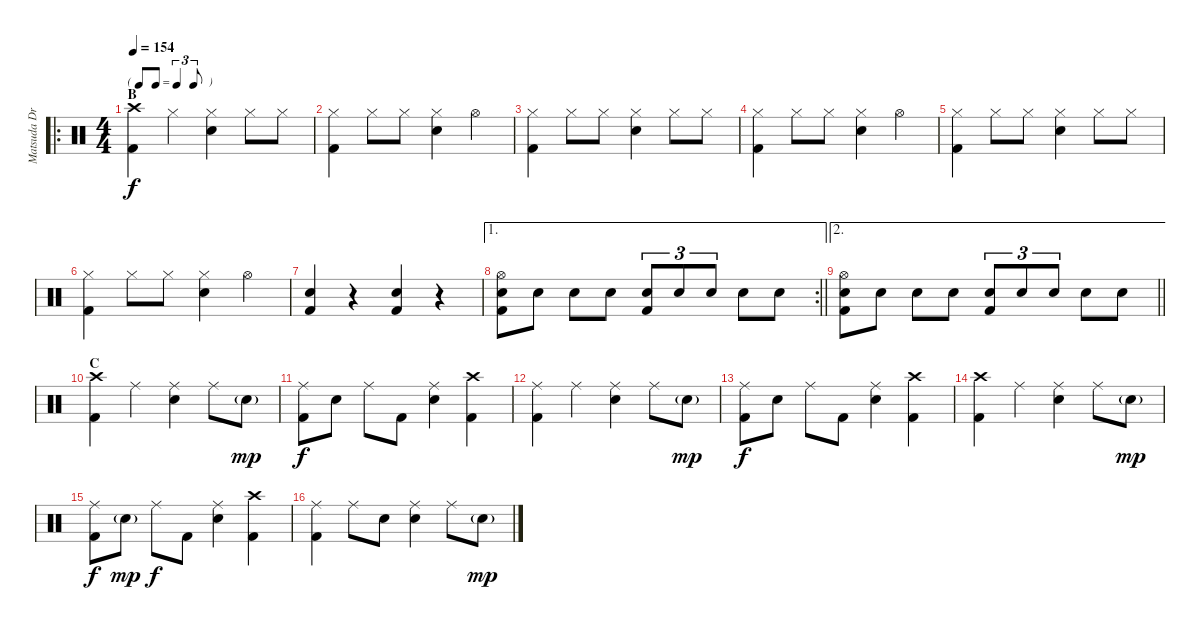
\track ("Matsuda Drums" "Matsuda Dr") {instrument percussion}
\staff {score}
\articulation defaults
\ro
\ts (4 4)
\tf triplet8th
\section ("" "B")
\tempo 154
\clef neutral
\ks c
("Crash high (hit)" "Kick (hit) 2").4{dy f} "Hi-Hat (closed)".4 ("Hi-Hat (closed)" "Snare (hit) 2").4 "Hi-Hat (closed)".8 "Hi-Hat (closed)".8 |
("Hi-Hat (closed)" "Kick (hit) 2").4 "Hi-Hat (closed)".8 "Hi-Hat (closed)".8 ("Hi-Hat (closed)" "Snare (hit) 2").4 "Hi-Hat (open)".4 |
("Hi-Hat (closed)" "Kick (hit) 2").4 "Hi-Hat (closed)".8 "Hi-Hat (closed)".8 ("Hi-Hat (closed)" "Snare (hit) 2").4 "Hi-Hat (closed)".8 "Hi-Hat (closed)".8 |
("Hi-Hat (closed)" "Kick (hit) 2").4 "Hi-Hat (closed)".8 "Hi-Hat (closed)".8 ("Hi-Hat (closed)" "Snare (hit) 2").4 "Hi-Hat (open)".4 |
("Hi-Hat (closed)" "Kick (hit) 2").4 "Hi-Hat (closed)".8 "Hi-Hat (closed)".8 ("Hi-Hat (closed)" "Snare (hit) 2").4 "Hi-Hat (closed)".8 "Hi-Hat (closed)".8 |
("Hi-Hat (closed)" "Kick (hit) 2").4 "Hi-Hat (closed)".8 "Hi-Hat (closed)".8 ("Hi-Hat (closed)" "Snare (hit) 2").4 "Hi-Hat (open)".4 |
("Snare (hit) 2" "Kick (hit) 2").4 r.4 ("Snare (hit) 2" "Kick (hit) 2").4 r.4 |
\ae 1
\rc 2
\barLineRight lightlight
("Hi-Hat (open)" "Snare (hit) 2" "Kick (hit) 2").8 "Snare (hit) 2".8 "Snare (hit) 2".8 "Snare (hit) 2".8 ("Snare (hit) 2" "Kick (hit) 2").8{tu (3 2)} "Snare (hit) 2".8{tu (3 2)} "Snare (hit) 2".8{tu (3 2)} "Snare (hit) 2".8 "Snare (hit) 2".8 |
\ae 2
\barLineRight lightlight
("Hi-Hat (open)" "Snare (hit) 2" "Kick (hit) 2").8 "Snare (hit) 2".8 "Snare (hit) 2".8 "Snare (hit) 2".8 ("Snare (hit) 2" "Kick (hit) 2").8{tu (3 2)} "Snare (hit) 2".8{tu (3 2)} "Snare (hit) 2".8{tu (3 2)} "Snare (hit) 2".8 "Snare (hit) 2".8 |
\section ("" "C")
("Crash high (hit)" "Kick (hit) 2").4 "Ride (middle)".4 ("Ride (middle)" "Snare (hit) 2").4 "Ride (middle)".8 "Snare (hit) 2"{g}.8{dy mp} |
("Ride (middle)" "Kick (hit) 2").8{dy f} "Snare (hit) 2".8 "Ride (middle)".8 "Kick (hit) 2".8 ("Ride (middle)" "Snare (hit) 2").4 ("Crash high (hit)" "Kick (hit) 2").4 |
("Ride (middle)" "Kick (hit) 2").4 "Ride (middle)".4 ("Ride (middle)" "Snare (hit) 2").4 "Ride (middle)".8 "Snare (hit) 2"{g}.8{dy mp} |
("Ride (middle)" "Kick (hit) 2").8{dy f} "Snare (hit) 2".8 "Ride (middle)".8 "Kick (hit) 2".8 ("Ride (middle)" "Snare (hit) 2").4 ("Crash high (hit)" "Kick (hit) 2").4 |
("Crash high (hit)" "Kick (hit) 2").4 "Ride (middle)".4 ("Ride (middle)" "Snare (hit) 2").4 "Ride (middle)".8 "Snare (hit) 2"{g}.8{dy mp} |
("Ride (middle)" "Kick (hit) 2").8{dy f} "Snare (hit) 2"{g}.8{dy mp} "Ride (middle)".8{dy f} "Kick (hit) 2".8 ("Ride (middle)" "Snare (hit) 2").4 ("Crash high (hit)" "Kick (hit) 2").4 |
("Ride (middle)" "Kick (hit) 2").4 "Ride (middle)".8 "Snare (hit) 2".8 ("Ride (middle)" "Snare (hit) 2").4 "Ride (middle)".8 "Snare (hit) 2"{g}.8{dy mp}
